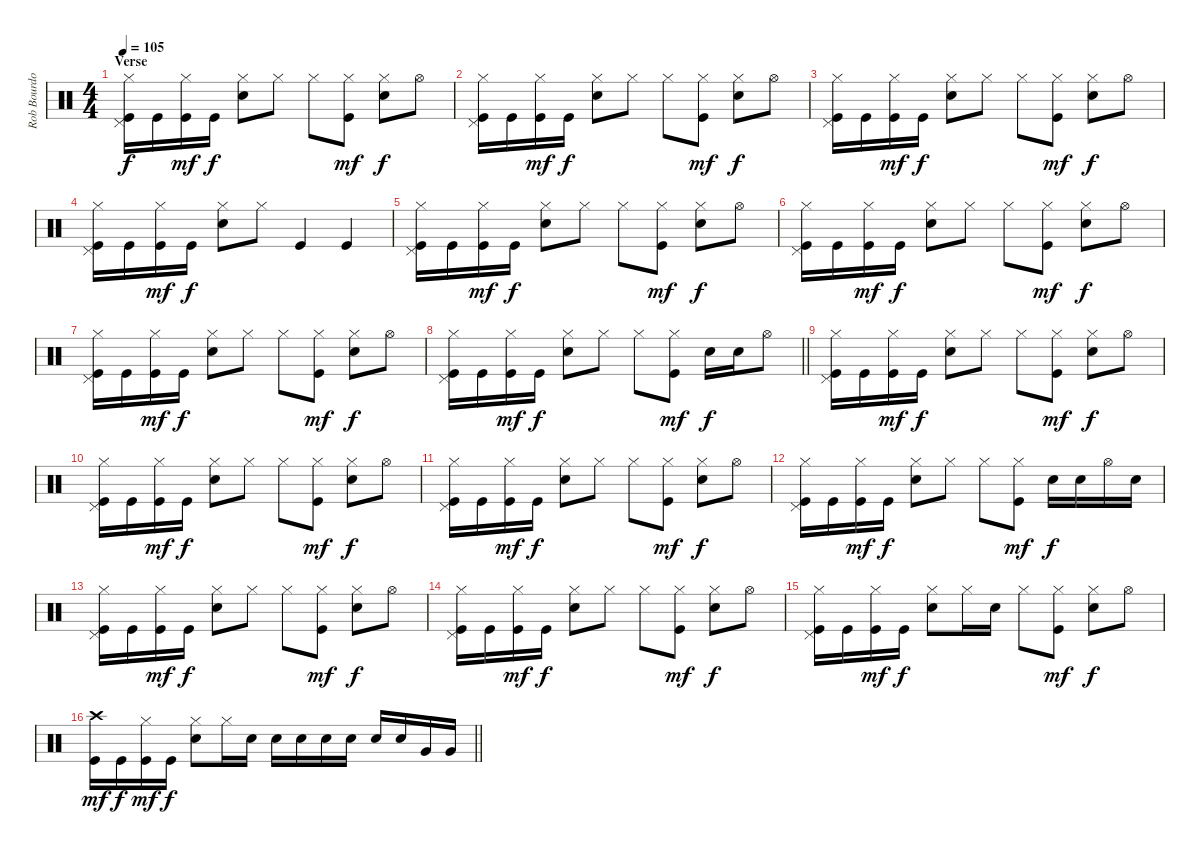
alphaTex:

\track ("Rob Bourdon - Drums" "Rob Bourdo") {instrument percussion}
\staff {score}
\articulation defaults
\ts (4 4)
\section ("" "Verse")
\tempo 105
\clef neutral
\ks c
("Hi-Hat (closed)" "Pedal Hi-Hat (hit)" "Kick (hit)").16{dy f} "Kick (hit)".16 ("Hi-Hat (closed)" "Kick (hit)").16{dy mf} "Kick (hit)".16{dy f} ("Hi-Hat (closed)" "Electric Snare (hit)").8 "Hi-Hat (closed)".8 "Hi-Hat (closed)".8 ("Hi-Hat (closed)" "Kick (hit)").8{dy mf} ("Hi-Hat (closed)" "Electric Snare (hit)").8{dy f} "Hi-Hat (open)".8 |
("Hi-Hat (closed)" "Pedal Hi-Hat (hit)" "Kick (hit)").16 "Kick (hit)".16 ("Hi-Hat (closed)" "Kick (hit)").16{dy mf} "Kick (hit)".16{dy f} ("Hi-Hat (closed)" "Electric Snare (hit)").8 "Hi-Hat (closed)".8 "Hi-Hat (closed)".8 ("Hi-Hat (closed)" "Kick (hit)").8{dy mf} ("Hi-Hat (closed)" "Electric Snare (hit)").8{dy f} "Hi-Hat (open)".8 |
("Hi-Hat (closed)" "Pedal Hi-Hat (hit)" "Kick (hit)").16 "Kick (hit)".16 ("Hi-Hat (closed)" "Kick (hit)").16{dy mf} "Kick (hit)".16{dy f} ("Hi-Hat (closed)" "Electric Snare (hit)").8 "Hi-Hat (closed)".8 "Hi-Hat (closed)".8 ("Hi-Hat (closed)" "Kick (hit)").8{dy mf} ("Hi-Hat (closed)" "Electric Snare (hit)").8{dy f} "Hi-Hat (open)".8 |
("Hi-Hat (closed)" "Pedal Hi-Hat (hit)" "Kick (hit)").16 "Kick (hit)".16 ("Hi-Hat (closed)" "Kick (hit)").16{dy mf} "Kick (hit)".16{dy f} ("Hi-Hat (closed)" "Electric Snare (hit)").8 "Hi-Hat (closed)".8 "Kick (hit)".4 "Kick (hit)".4 |
("Hi-Hat (closed)" "Pedal Hi-Hat (hit)" "Kick (hit)").16 "Kick (hit)".16 ("Hi-Hat (closed)" "Kick (hit)").16{dy mf} "Kick (hit)".16{dy f} ("Hi-Hat (closed)" "Electric Snare (hit)").8 "Hi-Hat (closed)".8 "Hi-Hat (closed)".8 ("Hi-Hat (closed)" "Kick (hit)").8{dy mf} ("Hi-Hat (closed)" "Electric Snare (hit)").8{dy f} "Hi-Hat (open)".8 |
("Hi-Hat (closed)" "Pedal Hi-Hat (hit)" "Kick (hit)").16 "Kick (hit)".16 ("Hi-Hat (closed)" "Kick (hit)").16{dy mf} "Kick (hit)".16{dy f} ("Hi-Hat (closed)" "Electric Snare (hit)").8 "Hi-Hat (closed)".8 "Hi-Hat (closed)".8 ("Hi-Hat (closed)" "Kick (hit)").8{dy mf} ("Hi-Hat (closed)" "Electric Snare (hit)").8{dy f} "Hi-Hat (open)".8 |
("Hi-Hat (closed)" "Pedal Hi-Hat (hit)" "Kick (hit)").16 "Kick (hit)".16 ("Hi-Hat (closed)" "Kick (hit)").16{dy mf} "Kick (hit)".16{dy f} ("Hi-Hat (closed)" "Electric Snare (hit)").8 "Hi-Hat (closed)".8 "Hi-Hat (closed)".8 ("Hi-Hat (closed)" "Kick (hit)").8{dy mf} ("Hi-Hat (closed)" "Electric Snare (hit)").8{dy f} "Hi-Hat (open)".8 |
\barLineRight lightlight
("Hi-Hat (closed)" "Pedal Hi-Hat (hit)" "Kick (hit)").16 "Kick (hit)".16 ("Hi-Hat (closed)" "Kick (hit)").16{dy mf} "Kick (hit)".16{dy f} ("Hi-Hat (closed)" "Electric Snare (hit)").8 "Hi-Hat (closed)".8 "Hi-Hat (closed)".8 ("Hi-Hat (closed)" "Kick (hit)").8{dy mf} "Electric Snare (hit)".16{dy f} "Electric Snare (hit)".16 "Hi-Hat (open)".8 |
("Hi-Hat (closed)" "Pedal Hi-Hat (hit)" "Kick (hit)").16 "Kick (hit)".16 ("Hi-Hat (closed)" "Kick (hit)").16{dy mf} "Kick (hit)".16{dy f} ("Hi-Hat (closed)" "Electric Snare (hit)").8 "Hi-Hat (closed)".8 "Hi-Hat (closed)".8 ("Hi-Hat (closed)" "Kick (hit)").8{dy mf} ("Hi-Hat (closed)" "Electric Snare (hit)").8{dy f} "Hi-Hat (open)".8 |
("Hi-Hat (closed)" "Pedal Hi-Hat (hit)" "Kick (hit)").16 "Kick (hit)".16 ("Hi-Hat (closed)" "Kick (hit)").16{dy mf} "Kick (hit)".16{dy f} ("Hi-Hat (closed)" "Electric Snare (hit)").8 "Hi-Hat (closed)".8 "Hi-Hat (closed)".8 ("Hi-Hat (closed)" "Kick (hit)").8{dy mf} ("Hi-Hat (closed)" "Electric Snare (hit)").8{dy f} "Hi-Hat (open)".8 |
("Hi-Hat (closed)" "Pedal Hi-Hat (hit)" "Kick (hit)").16 "Kick (hit)".16 ("Hi-Hat (closed)" "Kick (hit)").16{dy mf} "Kick (hit)".16{dy f} ("Hi-Hat (closed)" "Electric Snare (hit)").8 "Hi-Hat (closed)".8 "Hi-Hat (closed)".8 ("Hi-Hat (closed)" "Kick (hit)").8{dy mf} ("Hi-Hat (closed)" "Electric Snare (hit)").8{dy f} "Hi-Hat (open)".8 |
("Hi-Hat (closed)" "Pedal Hi-Hat (hit)" "Kick (hit)").16 "Kick (hit)".16 ("Hi-Hat (closed)" "Kick (hit)").16{dy mf} "Kick (hit)".16{dy f} ("Hi-Hat (closed)" "Electric Snare (hit)").8 "Hi-Hat (closed)".8 "Hi-Hat (closed)".8 ("Hi-Hat (closed)" "Kick (hit)").8{dy mf} "Electric Snare (hit)".16{dy f} "Electric Snare (hit)".16 "Hi-Hat (open)".16 "Electric Snare (hit)".16 |
("Hi-Hat (closed)" "Pedal Hi-Hat (hit)" "Kick (hit)").16 "Kick (hit)".16 ("Hi-Hat (closed)" "Kick (hit)").16{dy mf} "Kick (hit)".16{dy f} ("Hi-Hat (closed)" "Electric Snare (hit)").8 "Hi-Hat (closed)".8 "Hi-Hat (closed)".8 ("Hi-Hat (closed)" "Kick (hit)").8{dy mf} ("Hi-Hat (closed)" "Electric Snare (hit)").8{dy f} "Hi-Hat (open)".8 |
("Hi-Hat (closed)" "Pedal Hi-Hat (hit)" "Kick (hit)").16 "Kick (hit)".16 ("Hi-Hat (closed)" "Kick (hit)").16{dy mf} "Kick (hit)".16{dy f} ("Hi-Hat (closed)" "Electric Snare (hit)").8 "Hi-Hat (closed)".8 "Hi-Hat (closed)".8 ("Hi-Hat (closed)" "Kick (hit)").8{dy mf} ("Hi-Hat (closed)" "Electric Snare (hit)").8{dy f} "Hi-Hat (open)".8 |
("Hi-Hat (closed)" "Pedal Hi-Hat (hit)" "Kick (hit)").16 "Kick (hit)".16 ("Hi-Hat (closed)" "Kick (hit)").16{dy mf} "Kick (hit)".16{dy f} ("Hi-Hat (closed)" "Electric Snare (hit)").8 "Hi-Hat (closed)".16 "Electric Snare (hit)".16 "Hi-Hat (closed)".8 ("Hi-Hat (closed)" "Kick (hit)").8{dy mf} ("Hi-Hat (closed)" "Electric Snare (hit)").8{dy f} "Hi-Hat (open)".8 |
\barLineRight lightlight
("Crash high (hit)" "Kick (hit)").16{dy mf} "Kick (hit)".16{dy f} ("Hi-Hat (closed)" "Kick (hit)").16{dy mf} "Kick (hit)".16{dy f} ("Hi-Hat (closed)" "Electric Snare (hit)").8 "Hi-Hat (closed)".16 "Electric Snare (hit)".16 "Electric Snare (hit)".16 "Electric Snare (hit)".16 "Electric Snare (hit)".16 "Electric Snare (hit)".16 "Electric Snare (hit)".16 "Electric Snare (hit)".16 "Very Low Tom (hit)".16 "Very Low Tom (hit)".16
